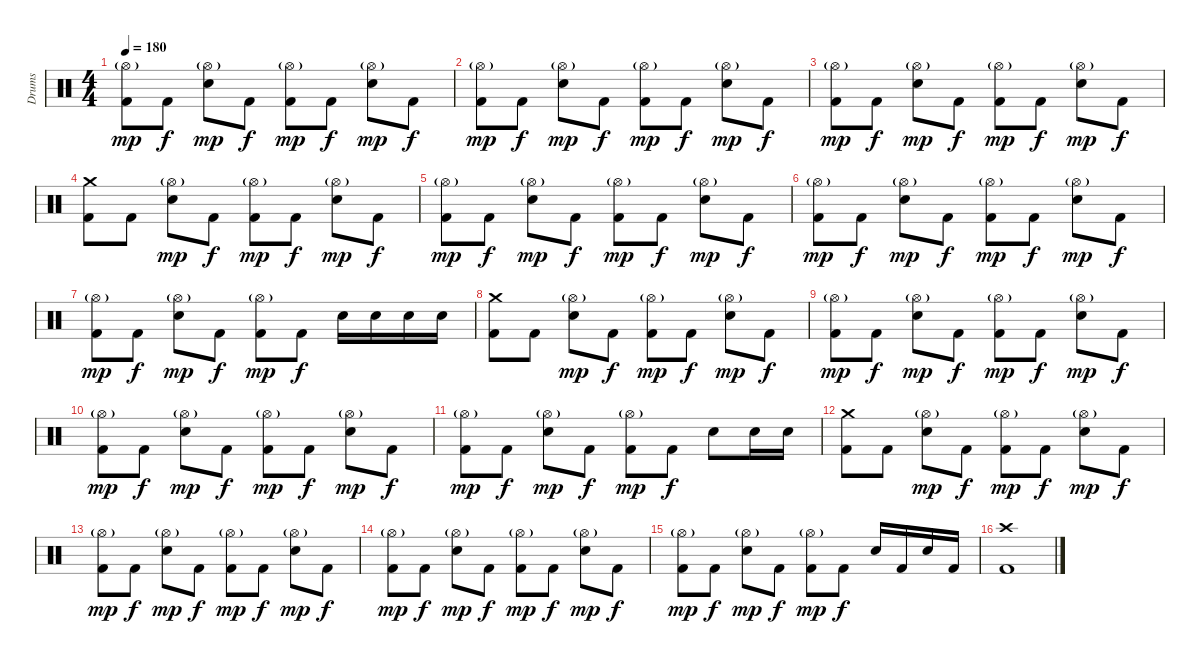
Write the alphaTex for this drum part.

\track ("Drums" "Drums") {instrument percussion}
\staff {score}
\articulation defaults
\ts (4 4)
\tempo 180
\clef neutral
\ks c
("Hi-Hat (open)"{g} "Kick (hit) 2").8{dy mp} "Kick (hit) 2".8{dy f} ("Hi-Hat (open)"{g} "Electric Snare (hit)").8{dy mp} "Kick (hit) 2".8{dy f} ("Hi-Hat (open)"{g} "Kick (hit) 2").8{dy mp} "Kick (hit) 2".8{dy f} ("Hi-Hat (open)"{g} "Electric Snare (hit)").8{dy mp} "Kick (hit) 2".8{dy f} |
("Hi-Hat (open)"{g} "Kick (hit) 2").8{dy mp} "Kick (hit) 2".8{dy f} ("Hi-Hat (open)"{g} "Electric Snare (hit)").8{dy mp} "Kick (hit) 2".8{dy f} ("Hi-Hat (open)"{g} "Kick (hit) 2").8{dy mp} "Kick (hit) 2".8{dy f} ("Hi-Hat (open)"{g} "Electric Snare (hit)").8{dy mp} "Kick (hit) 2".8{dy f} |
("Hi-Hat (open)"{g} "Kick (hit) 2").8{dy mp} "Kick (hit) 2".8{dy f} ("Hi-Hat (open)"{g} "Electric Snare (hit)").8{dy mp} "Kick (hit) 2".8{dy f} ("Hi-Hat (open)"{g} "Kick (hit) 2").8{dy mp} "Kick (hit) 2".8{dy f} ("Hi-Hat (open)"{g} "Electric Snare (hit)").8{dy mp} "Kick (hit) 2".8{dy f} |
("Crash medium (hit)" "Kick (hit) 2").8 "Kick (hit) 2".8 ("Hi-Hat (open)"{g} "Electric Snare (hit)").8{dy mp} "Kick (hit) 2".8{dy f} ("Hi-Hat (open)"{g} "Kick (hit) 2").8{dy mp} "Kick (hit) 2".8{dy f} ("Hi-Hat (open)"{g} "Electric Snare (hit)").8{dy mp} "Kick (hit) 2".8{dy f} |
("Hi-Hat (open)"{g} "Kick (hit) 2").8{dy mp} "Kick (hit) 2".8{dy f} ("Hi-Hat (open)"{g} "Electric Snare (hit)").8{dy mp} "Kick (hit) 2".8{dy f} ("Hi-Hat (open)"{g} "Kick (hit) 2").8{dy mp} "Kick (hit) 2".8{dy f} ("Hi-Hat (open)"{g} "Electric Snare (hit)").8{dy mp} "Kick (hit) 2".8{dy f} |
("Hi-Hat (open)"{g} "Kick (hit) 2").8{dy mp} "Kick (hit) 2".8{dy f} ("Hi-Hat (open)"{g} "Electric Snare (hit)").8{dy mp} "Kick (hit) 2".8{dy f} ("Hi-Hat (open)"{g} "Kick (hit) 2").8{dy mp} "Kick (hit) 2".8{dy f} ("Hi-Hat (open)"{g} "Electric Snare (hit)").8{dy mp} "Kick (hit) 2".8{dy f} |
("Hi-Hat (open)"{g} "Kick (hit) 2").8{dy mp} "Kick (hit) 2".8{dy f} ("Hi-Hat (open)"{g} "Electric Snare (hit)").8{dy mp} "Kick (hit) 2".8{dy f} ("Hi-Hat (open)"{g} "Kick (hit) 2").8{dy mp} "Kick (hit) 2".8{dy f} "Electric Snare (hit)".16 "Electric Snare (hit)".16 "Electric Snare (hit)".16 "Electric Snare (hit)".16 |
("Crash medium (hit)" "Kick (hit) 2").8 "Kick (hit) 2".8 ("Hi-Hat (open)"{g} "Electric Snare (hit)").8{dy mp} "Kick (hit) 2".8{dy f} ("Hi-Hat (open)"{g} "Kick (hit) 2").8{dy mp} "Kick (hit) 2".8{dy f} ("Hi-Hat (open)"{g} "Electric Snare (hit)").8{dy mp} "Kick (hit) 2".8{dy f} |
("Hi-Hat (open)"{g} "Kick (hit) 2").8{dy mp} "Kick (hit) 2".8{dy f} ("Hi-Hat (open)"{g} "Electric Snare (hit)").8{dy mp} "Kick (hit) 2".8{dy f} ("Hi-Hat (open)"{g} "Kick (hit) 2").8{dy mp} "Kick (hit) 2".8{dy f} ("Hi-Hat (open)"{g} "Electric Snare (hit)").8{dy mp} "Kick (hit) 2".8{dy f} |
("Hi-Hat (open)"{g} "Kick (hit) 2").8{dy mp} "Kick (hit) 2".8{dy f} ("Hi-Hat (open)"{g} "Electric Snare (hit)").8{dy mp} "Kick (hit) 2".8{dy f} ("Hi-Hat (open)"{g} "Kick (hit) 2").8{dy mp} "Kick (hit) 2".8{dy f} ("Hi-Hat (open)"{g} "Electric Snare (hit)").8{dy mp} "Kick (hit) 2".8{dy f} |
("Hi-Hat (open)"{g} "Kick (hit) 2").8{dy mp} "Kick (hit) 2".8{dy f} ("Hi-Hat (open)"{g} "Electric Snare (hit)").8{dy mp} "Kick (hit) 2".8{dy f} ("Hi-Hat (open)"{g} "Kick (hit) 2").8{dy mp} "Kick (hit) 2".8{dy f} "Electric Snare (hit)".8 "Electric Snare (hit)".16 "Electric Snare (hit)".16 |
("Crash medium (hit)" "Kick (hit) 2").8 "Kick (hit) 2".8 ("Hi-Hat (open)"{g} "Electric Snare (hit)").8{dy mp} "Kick (hit) 2".8{dy f} ("Hi-Hat (open)"{g} "Kick (hit) 2").8{dy mp} "Kick (hit) 2".8{dy f} ("Hi-Hat (open)"{g} "Electric Snare (hit)").8{dy mp} "Kick (hit) 2".8{dy f} |
("Hi-Hat (open)"{g} "Kick (hit) 2").8{dy mp} "Kick (hit) 2".8{dy f} ("Hi-Hat (open)"{g} "Electric Snare (hit)").8{dy mp} "Kick (hit) 2".8{dy f} ("Hi-Hat (open)"{g} "Kick (hit) 2").8{dy mp} "Kick (hit) 2".8{dy f} ("Hi-Hat (open)"{g} "Electric Snare (hit)").8{dy mp} "Kick (hit) 2".8{dy f} |
("Hi-Hat (open)"{g} "Kick (hit) 2").8{dy mp} "Kick (hit) 2".8{dy f} ("Hi-Hat (open)"{g} "Electric Snare (hit)").8{dy mp} "Kick (hit) 2".8{dy f} ("Hi-Hat (open)"{g} "Kick (hit) 2").8{dy mp} "Kick (hit) 2".8{dy f} ("Hi-Hat (open)"{g} "Electric Snare (hit)").8{dy mp} "Kick (hit) 2".8{dy f} |
("Hi-Hat (open)"{g} "Kick (hit) 2").8{dy mp} "Kick (hit) 2".8{dy f} ("Hi-Hat (open)"{g} "Electric Snare (hit)").8{dy mp} "Kick (hit) 2".8{dy f} ("Hi-Hat (open)"{g} "Kick (hit) 2").8{dy mp} "Kick (hit) 2".8{dy f} "Electric Snare (hit)".16 "Kick (hit) 2".16 "Electric Snare (hit)".16 "Kick (hit) 2".16 |
("Crash high (hit)" "Kick (hit) 2").1
